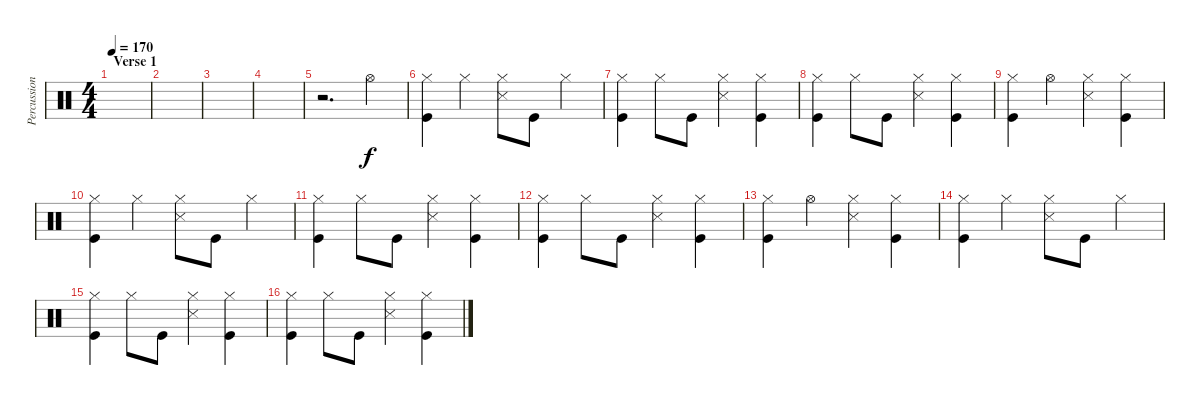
\track ("Percussion" "Percussion") {instrument percussion}
\staff {score}
\articulation defaults
\ts (4 4)
\section ("" "Verse 1")
\tempo 170
\clef neutral
\ks c
|
|
|
|
r.2{d} "Hi-Hat (open)".4 |
("Hi-Hat (closed)" "Kick (hit)").4 "Hi-Hat (closed)".4 ("Hi-Hat (closed)" "Snare (side stick) 3").8 "Kick (hit)".8 "Hi-Hat (closed)".4 |
("Hi-Hat (closed)" "Kick (hit)").4 "Hi-Hat (closed)".8 "Kick (hit)".8 ("Hi-Hat (closed)" "Snare (side stick) 3").4 ("Hi-Hat (closed)" "Kick (hit)").4 |
("Hi-Hat (closed)" "Kick (hit)").4 "Hi-Hat (closed)".8 "Kick (hit)".8 ("Hi-Hat (closed)" "Snare (side stick) 3").4 ("Hi-Hat (closed)" "Kick (hit)").4 |
("Hi-Hat (closed)" "Kick (hit)").4 "Hi-Hat (open)".4 ("Hi-Hat (closed)" "Snare (side stick) 3").4 ("Hi-Hat (closed)" "Kick (hit)").4 |
("Hi-Hat (closed)" "Kick (hit)").4 "Hi-Hat (closed)".4 ("Hi-Hat (closed)" "Snare (side stick) 3").8 "Kick (hit)".8 "Hi-Hat (closed)".4 |
("Hi-Hat (closed)" "Kick (hit)").4 "Hi-Hat (closed)".8 "Kick (hit)".8 ("Hi-Hat (closed)" "Snare (side stick) 3").4 ("Hi-Hat (closed)" "Kick (hit)").4 |
("Hi-Hat (closed)" "Kick (hit)").4 "Hi-Hat (closed)".8 "Kick (hit)".8 ("Hi-Hat (closed)" "Snare (side stick) 3").4 ("Hi-Hat (closed)" "Kick (hit)").4 |
("Hi-Hat (closed)" "Kick (hit)").4 "Hi-Hat (open)".4 ("Hi-Hat (closed)" "Snare (side stick) 3").4 ("Hi-Hat (closed)" "Kick (hit)").4 |
("Hi-Hat (closed)" "Kick (hit)").4 "Hi-Hat (closed)".4 ("Hi-Hat (closed)" "Snare (side stick) 3").8 "Kick (hit)".8 "Hi-Hat (closed)".4 |
("Hi-Hat (closed)" "Kick (hit)").4 "Hi-Hat (closed)".8 "Kick (hit)".8 ("Hi-Hat (closed)" "Snare (side stick) 3").4 ("Hi-Hat (closed)" "Kick (hit)").4 |
("Hi-Hat (closed)" "Kick (hit)").4 "Hi-Hat (closed)".8 "Kick (hit)".8 ("Hi-Hat (closed)" "Snare (side stick) 3").4 ("Hi-Hat (closed)" "Kick (hit)").4
